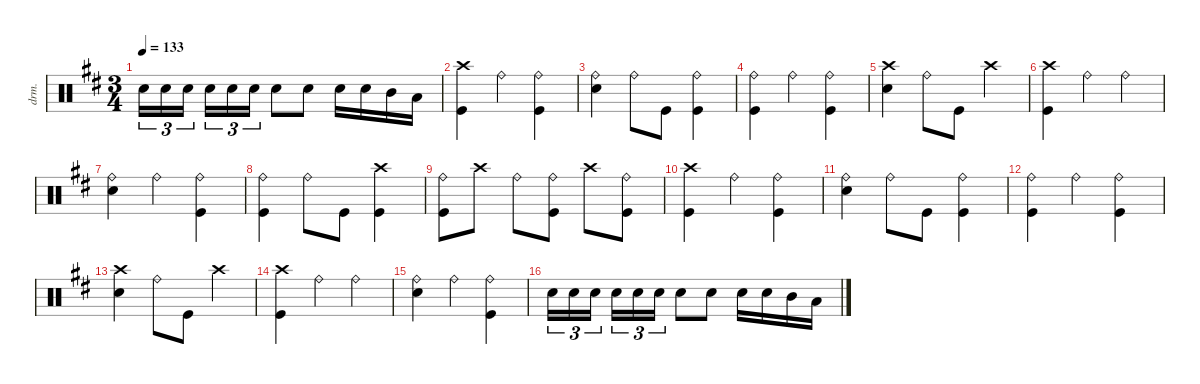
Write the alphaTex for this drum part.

\defaultSystemsLayout 4
\hideDynamics
\bracketExtendMode nobrackets
\otherSystemsTrackNameOrientation horizontal
\track ("Drums" "drm.") {defaultSystemsLayout 4 instrument percussion}
\staff {score}
\articulation defaults
\ts (3 4)
\tempo 133
\clef neutral
\ks bminor "Snare (hit) 2"{acc forcenatural}.16{tu (3 2) dy mp beam Down} "Snare (hit) 2"{acc forcenatural}.16{tu (3 2) beam Down} "Snare (hit) 2"{acc forcenatural}.16{tu (3 2) beam Down} "Snare (hit) 2"{acc forcenatural}.16{tu (3 2) beam Down} "Snare (hit) 2"{acc forcenatural}.16{tu (3 2) beam Down} "Snare (hit) 2"{acc forcenatural}.16{tu (3 2) beam Down} "Snare (hit) 2"{acc forcenatural}.8{beam Down} "Snare (hit) 2"{acc forcenatural}.8{dy f beam Down} "Snare (hit) 2"{acc forcenatural}.16{beam Down} "Snare (hit) 2"{acc forcenatural}.16{beam Down} "Mid Tom (hit)"{acc forcenatural}.16{beam Down} "Low Tom (hit)"{acc forcenatural}.16{beam Down}
|
("Crash high (hit)"{acc forcenatural} "Kick (hit)"{acc forcenatural}).4{beam Down} "Ride (bell)"{acc forcenatural}.4{beam Down} ("Ride (bell)"{acc forcenatural} "Kick (hit)"{acc forcenatural}).4{beam Down} |
("Ride (bell)"{acc forcenatural} "Snare (hit) 2"{acc forcenatural}).4{beam Down} "Ride (bell)"{acc forcenatural}.8{beam Down} "Kick (hit)"{acc forcenatural}.8{beam Down} ("Ride (bell)"{acc forcenatural} "Kick (hit)"{acc forcenatural}).4{beam Down} |
("Ride (bell)"{acc forcenatural} "Kick (hit)"{acc forcenatural}).4{beam Down} "Ride (bell)"{acc forcenatural}.4{beam Down} ("Ride (bell)"{acc forcenatural} "Kick (hit)"{acc forcenatural}).4{beam Down} |
("Crash high (hit)"{acc forcenatural} "Snare (hit) 2"{acc forcenatural}).4{beam Down} "Ride (bell)"{acc forcenatural}.8{beam Down} "Kick (hit)"{acc forcenatural}.8{beam Down} "Crash high (hit)"{acc forcenatural}.4{beam Down} |
("Crash high (hit)"{acc forcenatural} "Kick (hit)"{acc forcenatural}).4{beam Down} "Ride (bell)"{acc forcenatural}.4{beam Down} "Ride (bell)"{acc forcenatural}.4{beam Down} |
("Ride (bell)"{acc forcenatural} "Snare (hit) 2"{acc forcenatural}).4{beam Down} "Ride (bell)"{acc forcenatural}.4{beam Down} ("Ride (bell)"{acc forcenatural} "Kick (hit)"{acc forcenatural}).4{beam Down} |
("Ride (bell)"{acc forcenatural} "Kick (hit)"{acc forcenatural}).4{beam Down} "Ride (bell)"{acc forcenatural}.8{beam Down} "Kick (hit)"{acc forcenatural}.8{beam Down} ("Crash high (hit)"{acc forcenatural} "Kick (hit)"{acc forcenatural}).4{beam Down} |
("Ride (bell)"{acc forcenatural} "Kick (hit)"{acc forcenatural}).8{beam Down} "Crash high (hit)"{acc forcenatural}.8{beam Down} "Ride (bell)"{acc forcenatural}.8{beam Down} ("Ride (bell)"{acc forcenatural} "Kick (hit)"{acc forcenatural}).8{beam Down} "Crash high (hit)"{acc forcenatural}.8{beam Down} ("Ride (bell)"{acc forcenatural} "Kick (hit)"{acc forcenatural}).8{beam Down} |
("Crash high (hit)"{acc forcenatural} "Kick (hit)"{acc forcenatural}).4{beam Down} "Ride (bell)"{acc forcenatural}.4{beam Down} ("Ride (bell)"{acc forcenatural} "Kick (hit)"{acc forcenatural}).4{beam Down} |
("Ride (bell)"{acc forcenatural} "Snare (hit) 2"{acc forcenatural}).4{beam Down} "Ride (bell)"{acc forcenatural}.8{beam Down} "Kick (hit)"{acc forcenatural}.8{beam Down} ("Ride (bell)"{acc forcenatural} "Kick (hit)"{acc forcenatural}).4{beam Down} |
("Ride (bell)"{acc forcenatural} "Kick (hit)"{acc forcenatural}).4{beam Down} "Ride (bell)"{acc forcenatural}.4{beam Down} ("Ride (bell)"{acc forcenatural} "Kick (hit)"{acc forcenatural}).4{beam Down} |
("Crash high (hit)"{acc forcenatural} "Snare (hit) 2"{acc forcenatural}).4{beam Down} "Ride (bell)"{acc forcenatural}.8{beam Down} "Kick (hit)"{acc forcenatural}.8{beam Down} "Crash high (hit)"{acc forcenatural}.4{beam Down} |
("Crash high (hit)"{acc forcenatural} "Kick (hit)"{acc forcenatural}).4{beam Down} "Ride (bell)"{acc forcenatural}.4{beam Down} "Ride (bell)"{acc forcenatural}.4{beam Down} |
("Ride (bell)"{acc forcenatural} "Snare (hit) 2"{acc forcenatural}).4{beam Down} "Ride (bell)"{acc forcenatural}.4{beam Down} ("Ride (bell)"{acc forcenatural} "Kick (hit)"{acc forcenatural}).4{beam Down} |
"Snare (hit) 2"{acc forcenatural}.16{tu (3 2) dy mp beam Down} "Snare (hit) 2"{acc forcenatural}.16{tu (3 2) beam Down} "Snare (hit) 2"{acc forcenatural}.16{tu (3 2) beam Down} "Snare (hit) 2"{acc forcenatural}.16{tu (3 2) beam Down} "Snare (hit) 2"{acc forcenatural}.16{tu (3 2) beam Down} "Snare (hit) 2"{acc forcenatural}.16{tu (3 2) beam Down} "Snare (hit) 2"{acc forcenatural}.8{beam Down} "Snare (hit) 2"{acc forcenatural}.8{dy f beam Down} "Snare (hit) 2"{acc forcenatural}.16{beam Down} "Snare (hit) 2"{acc forcenatural}.16{beam Down} "Mid Tom (hit)"{acc forcenatural}.16{beam Down} "Low Tom (hit)"{acc forcenatural}.16{beam Down}
